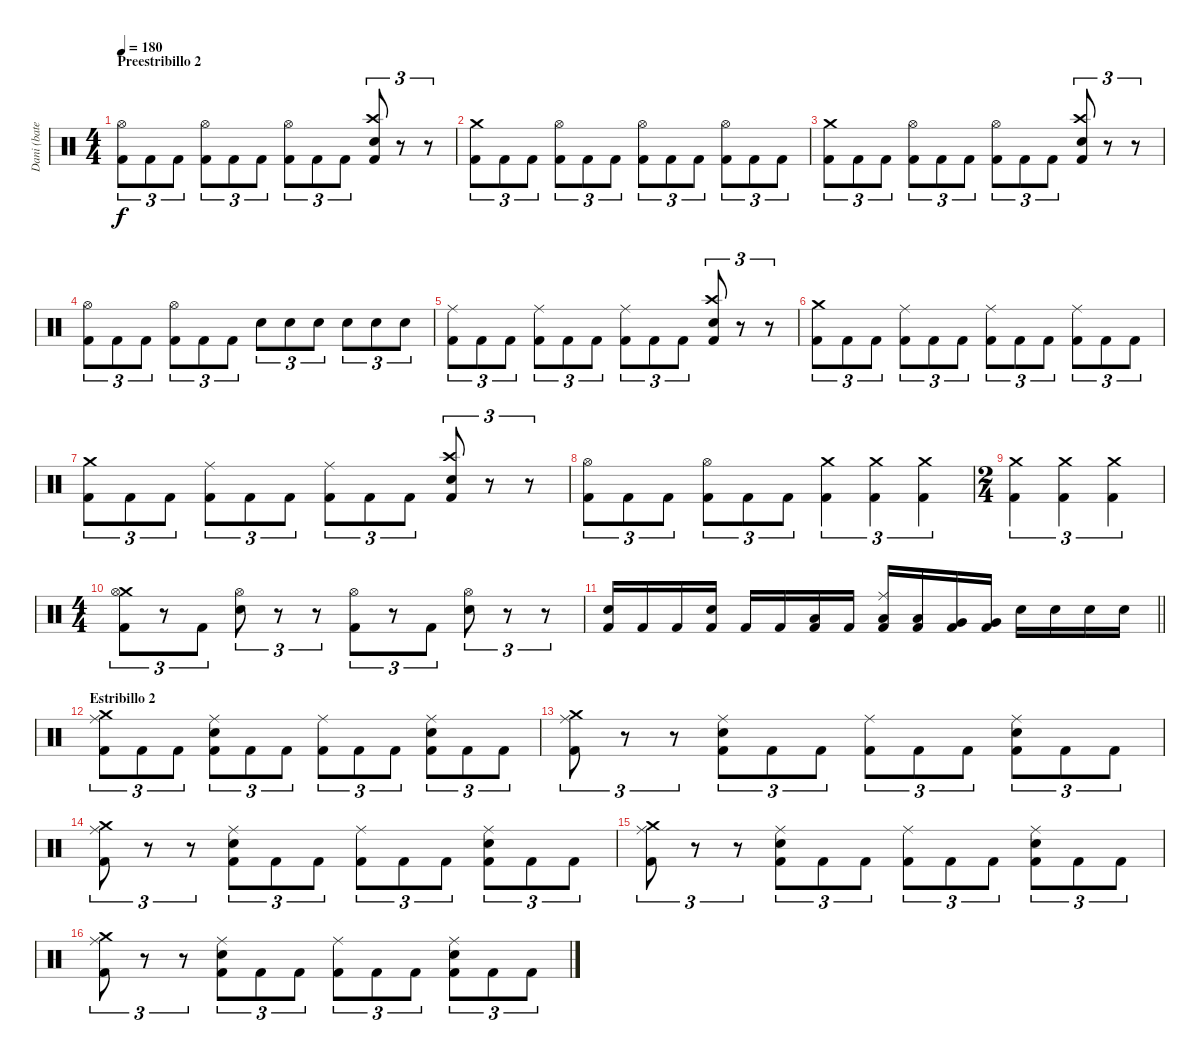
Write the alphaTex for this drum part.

\track ("Dani (bateria)" "Dani (bate") {instrument percussion}
\staff {score}
\articulation defaults
\ts (4 4)
\section ("" "Preestribillo 2")
\tempo 180
\clef neutral
\ks c
("Hi-Hat (open)" "Kick (hit) 2").8{tu (3 2) dy f} "Kick (hit) 2".8{tu (3 2)} "Kick (hit) 2".8{tu (3 2)} ("Hi-Hat (open)" "Kick (hit) 2").8{tu (3 2)} "Kick (hit) 2".8{tu (3 2)} "Kick (hit) 2".8{tu (3 2)} ("Hi-Hat (open)" "Kick (hit) 2").8{tu (3 2)} "Kick (hit) 2".8{tu (3 2)} "Kick (hit) 2".8{tu (3 2)} ("Crash high (hit)" "Electric Snare (hit)" "Kick (hit) 2").8{tu (3 2)} r.8{tu (3 2)} r.8{tu (3 2)} |
("Crash medium (hit)" "Kick (hit) 2").8{tu (3 2)} "Kick (hit) 2".8{tu (3 2)} "Kick (hit) 2".8{tu (3 2)} ("Hi-Hat (open)" "Kick (hit) 2").8{tu (3 2)} "Kick (hit) 2".8{tu (3 2)} "Kick (hit) 2".8{tu (3 2)} ("Hi-Hat (open)" "Kick (hit) 2").8{tu (3 2)} "Kick (hit) 2".8{tu (3 2)} "Kick (hit) 2".8{tu (3 2)} ("Hi-Hat (open)" "Kick (hit) 2").8{tu (3 2)} "Kick (hit) 2".8{tu (3 2)} "Kick (hit) 2".8{tu (3 2)} |
("Crash medium (hit)" "Kick (hit) 2").8{tu (3 2)} "Kick (hit) 2".8{tu (3 2)} "Kick (hit) 2".8{tu (3 2)} ("Hi-Hat (open)" "Kick (hit) 2").8{tu (3 2)} "Kick (hit) 2".8{tu (3 2)} "Kick (hit) 2".8{tu (3 2)} ("Hi-Hat (open)" "Kick (hit) 2").8{tu (3 2)} "Kick (hit) 2".8{tu (3 2)} "Kick (hit) 2".8{tu (3 2)} ("Crash high (hit)" "Electric Snare (hit)" "Kick (hit) 2").8{tu (3 2)} r.8{tu (3 2)} r.8{tu (3 2)} |
("Hi-Hat (open)" "Kick (hit) 2").8{tu (3 2)} "Kick (hit) 2".8{tu (3 2)} "Kick (hit) 2".8{tu (3 2)} ("Hi-Hat (open)" "Kick (hit) 2").8{tu (3 2)} "Kick (hit) 2".8{tu (3 2)} "Kick (hit) 2".8{tu (3 2)} "Electric Snare (hit)".8{tu (3 2)} "Electric Snare (hit)".8{tu (3 2)} "Electric Snare (hit)".8{tu (3 2)} "Electric Snare (hit)".8{tu (3 2)} "Electric Snare (hit)".8{tu (3 2)} "Electric Snare (hit)".8{tu (3 2)} |
("Ride (middle)" "Kick (hit) 2").8{tu (3 2)} "Kick (hit) 2".8{tu (3 2)} "Kick (hit) 2".8{tu (3 2)} ("Ride (middle)" "Kick (hit) 2").8{tu (3 2)} "Kick (hit) 2".8{tu (3 2)} "Kick (hit) 2".8{tu (3 2)} ("Ride (middle)" "Kick (hit) 2").8{tu (3 2)} "Kick (hit) 2".8{tu (3 2)} "Kick (hit) 2".8{tu (3 2)} ("Crash high (hit)" "Electric Snare (hit)" "Kick (hit) 2").8{tu (3 2)} r.8{tu (3 2)} r.8{tu (3 2)} |
("Crash medium (hit)" "Kick (hit) 2").8{tu (3 2)} "Kick (hit) 2".8{tu (3 2)} "Kick (hit) 2".8{tu (3 2)} ("Ride (middle)" "Kick (hit) 2").8{tu (3 2)} "Kick (hit) 2".8{tu (3 2)} "Kick (hit) 2".8{tu (3 2)} ("Ride (middle)" "Kick (hit) 2").8{tu (3 2)} "Kick (hit) 2".8{tu (3 2)} "Kick (hit) 2".8{tu (3 2)} ("Ride (middle)" "Kick (hit) 2").8{tu (3 2)} "Kick (hit) 2".8{tu (3 2)} "Kick (hit) 2".8{tu (3 2)} |
("Crash medium (hit)" "Kick (hit) 2").8{tu (3 2)} "Kick (hit) 2".8{tu (3 2)} "Kick (hit) 2".8{tu (3 2)} ("Ride (middle)" "Kick (hit) 2").8{tu (3 2)} "Kick (hit) 2".8{tu (3 2)} "Kick (hit) 2".8{tu (3 2)} ("Ride (middle)" "Kick (hit) 2").8{tu (3 2)} "Kick (hit) 2".8{tu (3 2)} "Kick (hit) 2".8{tu (3 2)} ("Crash high (hit)" "Electric Snare (hit)" "Kick (hit) 2").8{tu (3 2)} r.8{tu (3 2)} r.8{tu (3 2)} |
("Hi-Hat (open)" "Kick (hit) 2").8{tu (3 2)} "Kick (hit) 2".8{tu (3 2)} "Kick (hit) 2".8{tu (3 2)} ("Hi-Hat (open)" "Kick (hit) 2").8{tu (3 2)} "Kick (hit) 2".8{tu (3 2)} "Kick (hit) 2".8{tu (3 2)} ("Crash medium (hit)" "Kick (hit) 2").4{tu (3 2)} ("Crash medium (hit)" "Kick (hit) 2").4{tu (3 2)} ("Crash medium (hit)" "Kick (hit) 2").4{tu (3 2)} |
\ts (2 4)
("Crash medium (hit)" "Kick (hit) 2").4{tu (3 2)} ("Crash medium (hit)" "Kick (hit) 2").4{tu (3 2)} ("Crash medium (hit)" "Kick (hit) 2").4{tu (3 2)} |
\ts (4 4)
("Crash medium (hit)" "Hi-Hat (open)" "Kick (hit) 2").8{tu (3 2)} r.8{tu (3 2)} "Kick (hit) 2".8{tu (3 2)} ("Hi-Hat (open)" "Electric Snare (hit)").8{tu (3 2)} r.8{tu (3 2)} r.8{tu (3 2)} ("Hi-Hat (open)" "Kick (hit) 2").8{tu (3 2)} r.8{tu (3 2)} "Kick (hit) 2".8{tu (3 2)} ("Hi-Hat (open)" "Electric Snare (hit)").8{tu (3 2)} r.8{tu (3 2)} r.8{tu (3 2)} |
\barLineRight lightlight
("Electric Snare (hit)" "Kick (hit) 2").16 "Kick (hit) 2".16 "Kick (hit) 2".16 ("Electric Snare (hit)" "Kick (hit) 2").16 "Kick (hit) 2".16 "Kick (hit) 2".16 ("Low Tom (hit)" "Kick (hit) 2").16 "Kick (hit) 2".16 ("Ride (middle)" "Low Tom (hit)" "Kick (hit) 2").16 ("Low Tom (hit)" "Kick (hit) 2").16 ("Very Low Tom (hit)" "Kick (hit) 2").16 ("Very Low Tom (hit)" "Kick (hit) 2").16 "Electric Snare (hit)".16 "Electric Snare (hit)".16 "Electric Snare (hit)".16 "Electric Snare (hit)".16 |
\section ("" "Estribillo 2")
("Crash medium (hit)" "Ride (middle)" "Kick (hit) 2").8{tu (3 2)} "Kick (hit) 2".8{tu (3 2)} "Kick (hit) 2".8{tu (3 2)} ("Ride (middle)" "Electric Snare (hit)" "Kick (hit) 2").8{tu (3 2)} "Kick (hit) 2".8{tu (3 2)} "Kick (hit) 2".8{tu (3 2)} ("Ride (middle)" "Kick (hit) 2").8{tu (3 2)} "Kick (hit) 2".8{tu (3 2)} "Kick (hit) 2".8{tu (3 2)} ("Ride (middle)" "Electric Snare (hit)" "Kick (hit) 2").8{tu (3 2)} "Kick (hit) 2".8{tu (3 2)} "Kick (hit) 2".8{tu (3 2)} |
("Crash medium (hit)" "Ride (middle)" "Kick (hit) 2").8{tu (3 2)} r.8{tu (3 2)} r.8{tu (3 2)} ("Ride (middle)" "Electric Snare (hit)" "Kick (hit) 2").8{tu (3 2)} "Kick (hit) 2".8{tu (3 2)} "Kick (hit) 2".8{tu (3 2)} ("Ride (middle)" "Kick (hit) 2").8{tu (3 2)} "Kick (hit) 2".8{tu (3 2)} "Kick (hit) 2".8{tu (3 2)} ("Ride (middle)" "Electric Snare (hit)" "Kick (hit) 2").8{tu (3 2)} "Kick (hit) 2".8{tu (3 2)} "Kick (hit) 2".8{tu (3 2)} |
("Crash medium (hit)" "Ride (middle)" "Kick (hit) 2").8{tu (3 2)} r.8{tu (3 2)} r.8{tu (3 2)} ("Ride (middle)" "Electric Snare (hit)" "Kick (hit) 2").8{tu (3 2)} "Kick (hit) 2".8{tu (3 2)} "Kick (hit) 2".8{tu (3 2)} ("Ride (middle)" "Kick (hit) 2").8{tu (3 2)} "Kick (hit) 2".8{tu (3 2)} "Kick (hit) 2".8{tu (3 2)} ("Ride (middle)" "Electric Snare (hit)" "Kick (hit) 2").8{tu (3 2)} "Kick (hit) 2".8{tu (3 2)} "Kick (hit) 2".8{tu (3 2)} |
("Crash medium (hit)" "Ride (middle)" "Kick (hit) 2").8{tu (3 2)} r.8{tu (3 2)} r.8{tu (3 2)} ("Ride (middle)" "Electric Snare (hit)" "Kick (hit) 2").8{tu (3 2)} "Kick (hit) 2".8{tu (3 2)} "Kick (hit) 2".8{tu (3 2)} ("Ride (middle)" "Kick (hit) 2").8{tu (3 2)} "Kick (hit) 2".8{tu (3 2)} "Kick (hit) 2".8{tu (3 2)} ("Ride (middle)" "Electric Snare (hit)" "Kick (hit) 2").8{tu (3 2)} "Kick (hit) 2".8{tu (3 2)} "Kick (hit) 2".8{tu (3 2)} |
("Crash medium (hit)" "Ride (middle)" "Kick (hit) 2").8{tu (3 2)} r.8{tu (3 2)} r.8{tu (3 2)} ("Ride (middle)" "Electric Snare (hit)" "Kick (hit) 2").8{tu (3 2)} "Kick (hit) 2".8{tu (3 2)} "Kick (hit) 2".8{tu (3 2)} ("Ride (middle)" "Kick (hit) 2").8{tu (3 2)} "Kick (hit) 2".8{tu (3 2)} "Kick (hit) 2".8{tu (3 2)} ("Ride (middle)" "Electric Snare (hit)" "Kick (hit) 2").8{tu (3 2)} "Kick (hit) 2".8{tu (3 2)} "Kick (hit) 2".8{tu (3 2)}
